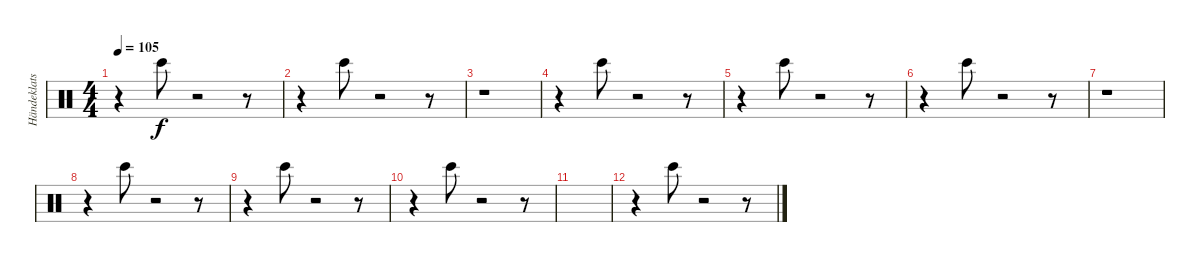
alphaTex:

\track ("Händeklatschen" "Händeklats") {instrument percussion}
\staff {score}
\articulation defaults
\ts (4 4)
\tempo 105
\clef neutral
\ks c
r.4{dy f} "Bongo High (hit)".8 r.2 r.8 |
r.4 "Bongo High (hit)".8 r.2 r.8 |
r.1 |
r.4 "Bongo High (hit)".8 r.2 r.8 |
r.4 "Bongo High (hit)".8 r.2 r.8 |
r.4 "Bongo High (hit)".8 r.2 r.8 |
r.1 |
r.4 "Bongo High (hit)".8 r.2 r.8 |
r.4 "Bongo High (hit)".8 r.2 r.8 |
r.4 "Bongo High (hit)".8 r.2 r.8 |
|
r.4 "Bongo High (hit)".8 r.2 r.8
